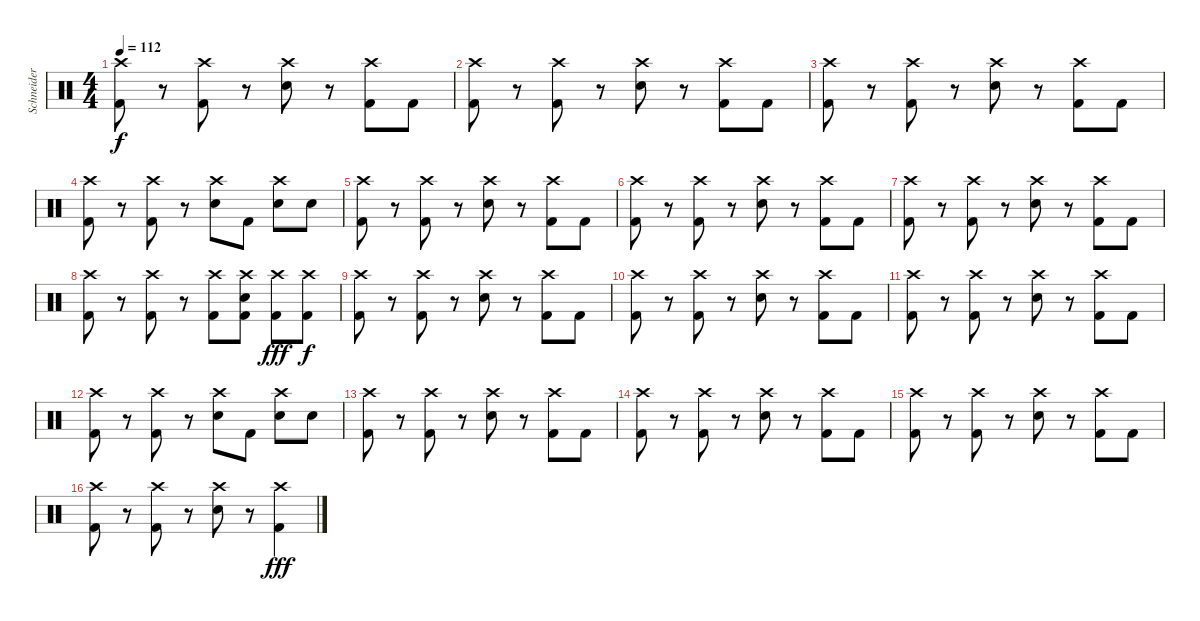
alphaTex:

\track ("Schneider - Drums" "Schneider ") {instrument percussion}
\staff {score}
\articulation defaults
\ts (4 4)
\tempo 112
\clef neutral
\ks c
("Crash high (hit)" "Kick (hit) 2").8{dy f} r.8 ("Crash high (hit)" "Kick (hit) 2").8 r.8 ("Crash high (hit)" "Snare (hit) 2").8 r.8 ("Crash high (hit)" "Kick (hit) 2").8 "Kick (hit) 2".8 |
("Crash high (hit)" "Kick (hit) 2").8 r.8 ("Crash high (hit)" "Kick (hit) 2").8 r.8 ("Crash high (hit)" "Snare (hit) 2").8 r.8 ("Crash high (hit)" "Kick (hit) 2").8 "Kick (hit) 2".8 |
("Crash high (hit)" "Kick (hit) 2").8 r.8 ("Crash high (hit)" "Kick (hit) 2").8 r.8 ("Crash high (hit)" "Snare (hit) 2").8 r.8 ("Crash high (hit)" "Kick (hit) 2").8 "Kick (hit) 2".8 |
("Crash high (hit)" "Kick (hit) 2").8 r.8 ("Crash high (hit)" "Kick (hit) 2").8 r.8 ("Crash high (hit)" "Snare (hit) 2").8 "Kick (hit) 2".8 ("Crash high (hit)" "Snare (hit) 2").8 "Snare (hit) 2".8 |
("Crash high (hit)" "Kick (hit) 2").8 r.8 ("Crash high (hit)" "Kick (hit) 2").8 r.8 ("Crash high (hit)" "Snare (hit) 2").8 r.8 ("Crash high (hit)" "Kick (hit) 2").8 "Kick (hit) 2".8 |
("Crash high (hit)" "Kick (hit) 2").8 r.8 ("Crash high (hit)" "Kick (hit) 2").8 r.8 ("Crash high (hit)" "Snare (hit) 2").8 r.8 ("Crash high (hit)" "Kick (hit) 2").8 "Kick (hit) 2".8 |
("Crash high (hit)" "Kick (hit) 2").8 r.8 ("Crash high (hit)" "Kick (hit) 2").8 r.8 ("Crash high (hit)" "Snare (hit) 2").8 r.8 ("Crash high (hit)" "Kick (hit) 2").8 "Kick (hit) 2".8 |
("Crash high (hit)" "Kick (hit) 2").8 r.8 ("Crash high (hit)" "Kick (hit) 2").8 r.8 ("Crash high (hit)" "Kick (hit) 2").8 ("Crash high (hit)" "Snare (hit) 2" "Kick (hit) 2").8 ("Crash high (hit)" "Kick (hit) 2").8{dy fff} ("Crash high (hit)" "Kick (hit) 2").8{dy f} |
("Crash high (hit)" "Kick (hit) 2").8 r.8 ("Crash high (hit)" "Kick (hit) 2").8 r.8 ("Crash high (hit)" "Snare (hit) 2").8 r.8 ("Crash high (hit)" "Kick (hit) 2").8 "Kick (hit) 2".8 |
("Crash high (hit)" "Kick (hit) 2").8 r.8 ("Crash high (hit)" "Kick (hit) 2").8 r.8 ("Crash high (hit)" "Snare (hit) 2").8 r.8 ("Crash high (hit)" "Kick (hit) 2").8 "Kick (hit) 2".8 |
("Crash high (hit)" "Kick (hit) 2").8 r.8 ("Crash high (hit)" "Kick (hit) 2").8 r.8 ("Crash high (hit)" "Snare (hit) 2").8 r.8 ("Crash high (hit)" "Kick (hit) 2").8 "Kick (hit) 2".8 |
("Crash high (hit)" "Kick (hit) 2").8 r.8 ("Crash high (hit)" "Kick (hit) 2").8 r.8 ("Crash high (hit)" "Snare (hit) 2").8 "Kick (hit) 2".8 ("Crash high (hit)" "Snare (hit) 2").8 "Snare (hit) 2".8 |
("Crash high (hit)" "Kick (hit) 2").8 r.8 ("Crash high (hit)" "Kick (hit) 2").8 r.8 ("Crash high (hit)" "Snare (hit) 2").8 r.8 ("Crash high (hit)" "Kick (hit) 2").8 "Kick (hit) 2".8 |
("Crash high (hit)" "Kick (hit) 2").8 r.8 ("Crash high (hit)" "Kick (hit) 2").8 r.8 ("Crash high (hit)" "Snare (hit) 2").8 r.8 ("Crash high (hit)" "Kick (hit) 2").8 "Kick (hit) 2".8 |
("Crash high (hit)" "Kick (hit) 2").8 r.8 ("Crash high (hit)" "Kick (hit) 2").8 r.8 ("Crash high (hit)" "Snare (hit) 2").8 r.8 ("Crash high (hit)" "Kick (hit) 2").8 "Kick (hit) 2".8 |
("Crash high (hit)" "Kick (hit) 2").8 r.8 ("Crash high (hit)" "Kick (hit) 2").8 r.8 ("Crash high (hit)" "Snare (hit) 2").8 r.8 ("Crash high (hit)" "Kick (hit) 2").4{dy fff}
